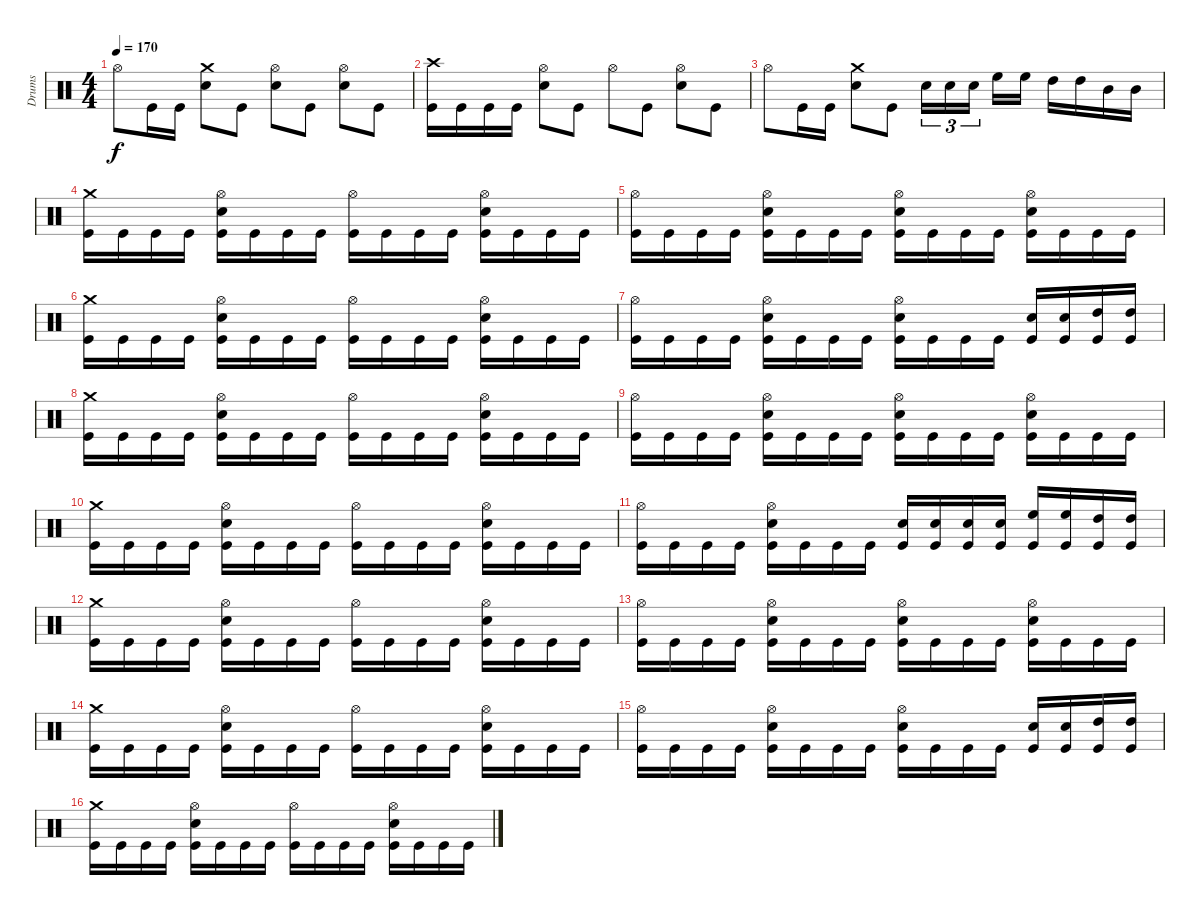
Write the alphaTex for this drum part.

\track ("Drums" "Drums") {instrument percussion}
\staff {score}
\articulation defaults
\ts (4 4)
\tempo 170
\clef neutral
\ks c "Hi-Hat (open)".8{dy f} "Kick (hit)".16 "Kick (hit)".16
("Crash medium (hit)" "Electric Snare (hit)").8 "Kick (hit)".8 ("Hi-Hat (open)" "Electric Snare (hit)").8 "Kick (hit)".8 ("Hi-Hat (open)" "Electric Snare (hit)").8 "Kick (hit)".8 |
("Crash high (hit)" "Kick (hit)").16 "Kick (hit)".16 "Kick (hit)".16 "Kick (hit)".16 ("Hi-Hat (open)" "Electric Snare (hit)").8 "Kick (hit)".8 "Hi-Hat (open)".8 "Kick (hit)".8 ("Hi-Hat (open)" "Electric Snare (hit)").8 "Kick (hit)".8 |
"Hi-Hat (open)".8 "Kick (hit)".16 "Kick (hit)".16 ("Crash medium (hit)" "Electric Snare (hit)").8 "Kick (hit)".8 "Electric Snare (hit)".16{tu (3 2)} "Electric Snare (hit)".16{tu (3 2)} "Electric Snare (hit)".16{tu (3 2)} "High Floor Tom (hit)".16 "High Floor Tom (hit)".16 "High Tom (hit)".16 "High Tom (hit)".16 "Mid Tom (hit)".16 "Mid Tom (hit)".16 |
("Crash medium (hit)" "Kick (hit)").16 "Kick (hit)".16 "Kick (hit)".16 "Kick (hit)".16 ("Hi-Hat (open)" "Electric Snare (hit)" "Kick (hit)").16 "Kick (hit)".16 "Kick (hit)".16 "Kick (hit)".16 ("Hi-Hat (open)" "Kick (hit)").16 "Kick (hit)".16 "Kick (hit)".16 "Kick (hit)".16 ("Hi-Hat (open)" "Electric Snare (hit)" "Kick (hit)").16 "Kick (hit)".16 "Kick (hit)".16 "Kick (hit)".16 |
("Hi-Hat (open)" "Kick (hit)").16 "Kick (hit)".16 "Kick (hit)".16 "Kick (hit)".16 ("Hi-Hat (open)" "Electric Snare (hit)" "Kick (hit)").16 "Kick (hit)".16 "Kick (hit)".16 "Kick (hit)".16 ("Hi-Hat (open)" "Electric Snare (hit)" "Kick (hit)").16 "Kick (hit)".16 "Kick (hit)".16 "Kick (hit)".16 ("Hi-Hat (open)" "Electric Snare (hit)" "Kick (hit)").16 "Kick (hit)".16 "Kick (hit)".16 "Kick (hit)".16 |
("Crash medium (hit)" "Kick (hit)").16 "Kick (hit)".16 "Kick (hit)".16 "Kick (hit)".16 ("Hi-Hat (open)" "Electric Snare (hit)" "Kick (hit)").16 "Kick (hit)".16 "Kick (hit)".16 "Kick (hit)".16 ("Hi-Hat (open)" "Kick (hit)").16 "Kick (hit)".16 "Kick (hit)".16 "Kick (hit)".16 ("Hi-Hat (open)" "Electric Snare (hit)" "Kick (hit)").16 "Kick (hit)".16 "Kick (hit)".16 "Kick (hit)".16 |
("Hi-Hat (open)" "Kick (hit)").16 "Kick (hit)".16 "Kick (hit)".16 "Kick (hit)".16 ("Hi-Hat (open)" "Electric Snare (hit)" "Kick (hit)").16 "Kick (hit)".16 "Kick (hit)".16 "Kick (hit)".16 ("Hi-Hat (open)" "Electric Snare (hit)" "Kick (hit)").16 "Kick (hit)".16 "Kick (hit)".16 "Kick (hit)".16 ("Electric Snare (hit)" "Kick (hit)").16 ("Electric Snare (hit)" "Kick (hit)").16 ("High Tom (hit)" "Kick (hit)").16 ("High Tom (hit)" "Kick (hit)").16 |
("Crash medium (hit)" "Kick (hit)").16 "Kick (hit)".16 "Kick (hit)".16 "Kick (hit)".16 ("Hi-Hat (open)" "Electric Snare (hit)" "Kick (hit)").16 "Kick (hit)".16 "Kick (hit)".16 "Kick (hit)".16 ("Hi-Hat (open)" "Kick (hit)").16 "Kick (hit)".16 "Kick (hit)".16 "Kick (hit)".16 ("Hi-Hat (open)" "Electric Snare (hit)" "Kick (hit)").16 "Kick (hit)".16 "Kick (hit)".16 "Kick (hit)".16 |
("Hi-Hat (open)" "Kick (hit)").16 "Kick (hit)".16 "Kick (hit)".16 "Kick (hit)".16 ("Hi-Hat (open)" "Electric Snare (hit)" "Kick (hit)").16 "Kick (hit)".16 "Kick (hit)".16 "Kick (hit)".16 ("Hi-Hat (open)" "Electric Snare (hit)" "Kick (hit)").16 "Kick (hit)".16 "Kick (hit)".16 "Kick (hit)".16 ("Hi-Hat (open)" "Electric Snare (hit)" "Kick (hit)").16 "Kick (hit)".16 "Kick (hit)".16 "Kick (hit)".16 |
("Crash medium (hit)" "Kick (hit)").16 "Kick (hit)".16 "Kick (hit)".16 "Kick (hit)".16 ("Hi-Hat (open)" "Electric Snare (hit)" "Kick (hit)").16 "Kick (hit)".16 "Kick (hit)".16 "Kick (hit)".16 ("Hi-Hat (open)" "Kick (hit)").16 "Kick (hit)".16 "Kick (hit)".16 "Kick (hit)".16 ("Hi-Hat (open)" "Electric Snare (hit)" "Kick (hit)").16 "Kick (hit)".16 "Kick (hit)".16 "Kick (hit)".16 |
("Hi-Hat (open)" "Kick (hit)").16 "Kick (hit)".16 "Kick (hit)".16 "Kick (hit)".16 ("Hi-Hat (open)" "Electric Snare (hit)" "Kick (hit)").16 "Kick (hit)".16 "Kick (hit)".16 "Kick (hit)".16 ("Electric Snare (hit)" "Kick (hit)").16 ("Electric Snare (hit)" "Kick (hit)").16 ("Electric Snare (hit)" "Kick (hit)").16 ("Electric Snare (hit)" "Kick (hit)").16 ("High Floor Tom (hit)" "Kick (hit)").16 ("High Floor Tom (hit)" "Kick (hit)").16 ("High Tom (hit)" "Kick (hit)").16 ("High Tom (hit)" "Kick (hit)").16 |
("Crash medium (hit)" "Kick (hit)").16 "Kick (hit)".16 "Kick (hit)".16 "Kick (hit)".16 ("Hi-Hat (open)" "Electric Snare (hit)" "Kick (hit)").16 "Kick (hit)".16 "Kick (hit)".16 "Kick (hit)".16 ("Hi-Hat (open)" "Kick (hit)").16 "Kick (hit)".16 "Kick (hit)".16 "Kick (hit)".16 ("Hi-Hat (open)" "Electric Snare (hit)" "Kick (hit)").16 "Kick (hit)".16 "Kick (hit)".16 "Kick (hit)".16 |
("Hi-Hat (open)" "Kick (hit)").16 "Kick (hit)".16 "Kick (hit)".16 "Kick (hit)".16 ("Hi-Hat (open)" "Electric Snare (hit)" "Kick (hit)").16 "Kick (hit)".16 "Kick (hit)".16 "Kick (hit)".16 ("Hi-Hat (open)" "Electric Snare (hit)" "Kick (hit)").16 "Kick (hit)".16 "Kick (hit)".16 "Kick (hit)".16 ("Hi-Hat (open)" "Electric Snare (hit)" "Kick (hit)").16 "Kick (hit)".16 "Kick (hit)".16 "Kick (hit)".16 |
("Crash medium (hit)" "Kick (hit)").16 "Kick (hit)".16 "Kick (hit)".16 "Kick (hit)".16 ("Hi-Hat (open)" "Electric Snare (hit)" "Kick (hit)").16 "Kick (hit)".16 "Kick (hit)".16 "Kick (hit)".16 ("Hi-Hat (open)" "Kick (hit)").16 "Kick (hit)".16 "Kick (hit)".16 "Kick (hit)".16 ("Hi-Hat (open)" "Electric Snare (hit)" "Kick (hit)").16 "Kick (hit)".16 "Kick (hit)".16 "Kick (hit)".16 |
("Hi-Hat (open)" "Kick (hit)").16 "Kick (hit)".16 "Kick (hit)".16 "Kick (hit)".16 ("Hi-Hat (open)" "Electric Snare (hit)" "Kick (hit)").16 "Kick (hit)".16 "Kick (hit)".16 "Kick (hit)".16 ("Hi-Hat (open)" "Electric Snare (hit)" "Kick (hit)").16 "Kick (hit)".16 "Kick (hit)".16 "Kick (hit)".16 ("Electric Snare (hit)" "Kick (hit)").16 ("Electric Snare (hit)" "Kick (hit)").16 ("High Tom (hit)" "Kick (hit)").16 ("High Tom (hit)" "Kick (hit)").16 |
("Crash medium (hit)" "Kick (hit)").16 "Kick (hit)".16 "Kick (hit)".16 "Kick (hit)".16 ("Hi-Hat (open)" "Electric Snare (hit)" "Kick (hit)").16 "Kick (hit)".16 "Kick (hit)".16 "Kick (hit)".16 ("Hi-Hat (open)" "Kick (hit)").16 "Kick (hit)".16 "Kick (hit)".16 "Kick (hit)".16 ("Hi-Hat (open)" "Electric Snare (hit)" "Kick (hit)").16 "Kick (hit)".16 "Kick (hit)".16 "Kick (hit)".16
